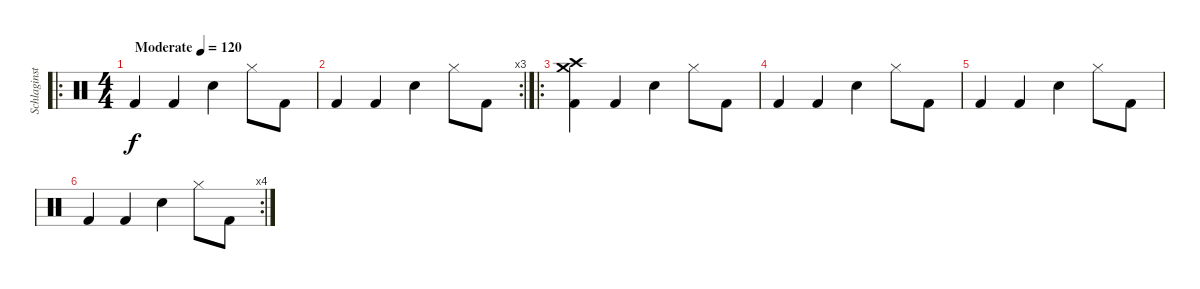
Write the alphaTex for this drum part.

\track ("Schlaginstrumente - Auswahl" "Schlaginst") {instrument percussion}
\staff {score}
\articulation defaults
\ro
\ts (4 4)
\tempo (120 "Moderate")
\clef neutral
\ks c "Kick (hit) 2".4{dy f} "Kick (hit) 2".4 "Snare (hit) 2".4 "Hi-Hat (closed)".8 "Kick (hit) 2".8
|
\rc 3 "Kick (hit) 2".4 "Kick (hit) 2".4 "Snare (hit) 2".4 "Hi-Hat (closed)".8 "Kick (hit) 2".8
|
\ro
("Kick (hit) 2" "Crash high (hit)" "Crash medium (hit)").4 "Kick (hit) 2".4 "Snare (hit) 2".4 "Hi-Hat (closed)".8 "Kick (hit) 2".8 |
"Kick (hit) 2".4 "Kick (hit) 2".4 "Snare (hit) 2".4 "Hi-Hat (closed)".8 "Kick (hit) 2".8 |
"Kick (hit) 2".4 "Kick (hit) 2".4 "Snare (hit) 2".4 "Hi-Hat (closed)".8 "Kick (hit) 2".8 |
\rc 4 "Kick (hit) 2".4 "Kick (hit) 2".4 "Snare (hit) 2".4 "Hi-Hat (closed)".8 "Kick (hit) 2".8
